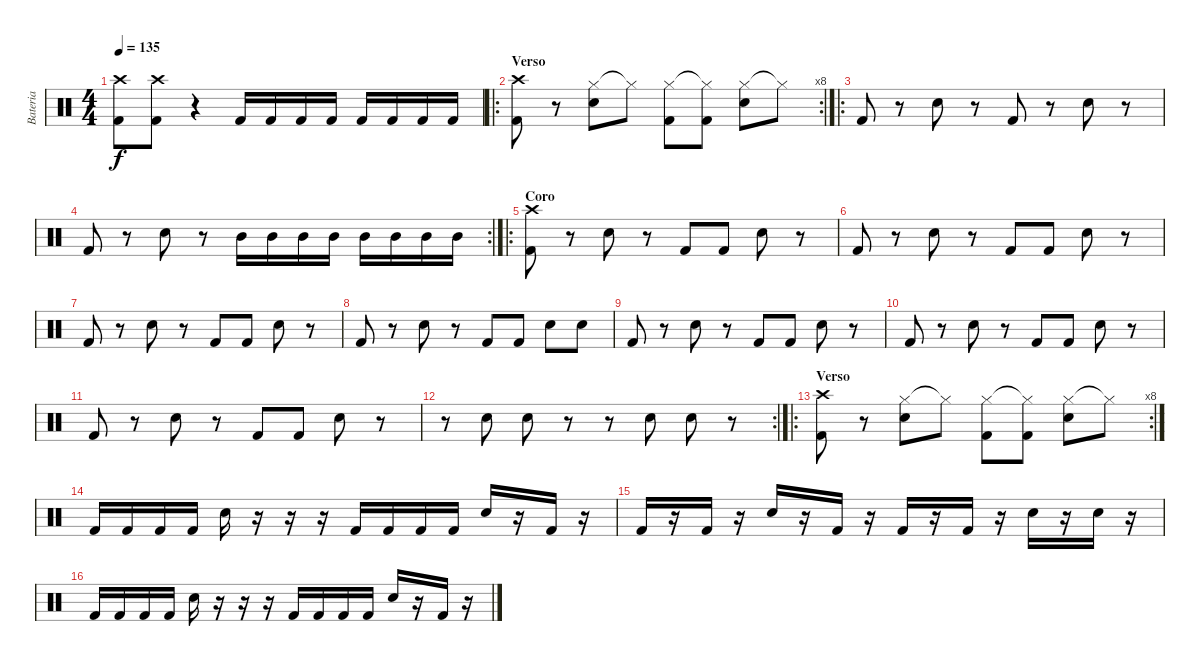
\track ("Bateria" "Bateria") {instrument percussion}
\staff {score}
\articulation defaults
\ts (4 4)
\tempo 135
\clef neutral
\ks c
("Crash high (hit)" "Kick (hit) 2").8{dy f} ("Crash high (hit)" "Kick (hit) 2").8 r.4 "Kick (hit) 2".16 "Kick (hit) 2".16 "Kick (hit) 2".16 "Kick (hit) 2".16 "Kick (hit) 2".16 "Kick (hit) 2".16 "Kick (hit) 2".16 "Kick (hit) 2".16 |
\ro
\rc 8
\section ("" "Verso")
("Crash high (hit)" "Kick (hit) 2").8 r.8 ("Hi-Hat (closed)" "Snare (hit) 2").8 "Hi-Hat (closed)"{t}.8 ("Hi-Hat (closed)" "Kick (hit) 2").8 ("Hi-Hat (closed)"{t} "Kick (hit) 2").8 ("Hi-Hat (closed)" "Snare (hit) 2").8 "Hi-Hat (closed)"{t}.8 |
\ro "Kick (hit) 2".8
r.8 "Snare (hit) 2".8 r.8 "Kick (hit) 2".8 r.8 "Snare (hit) 2".8 r.8 |
\rc 2 "Kick (hit) 2".8
r.8 "Snare (hit) 2".8 r.8 "Mid Tom (hit)".16 "Mid Tom (hit)".16 "Mid Tom (hit)".16 "Mid Tom (hit)".16 "Mid Tom (hit)".16 "Mid Tom (hit)".16 "Mid Tom (hit)".16 "Mid Tom (hit)".16 |
\ro
\section ("" "Coro")
("Crash high (hit)" "Kick (hit) 2").8 r.8 "Snare (hit) 2".8 r.8 "Kick (hit) 2".8 "Kick (hit) 2".8 "Snare (hit) 2".8 r.8 |
"Kick (hit) 2".8 r.8 "Snare (hit) 2".8 r.8 "Kick (hit) 2".8 "Kick (hit) 2".8 "Snare (hit) 2".8 r.8 |
"Kick (hit) 2".8 r.8 "Snare (hit) 2".8 r.8 "Kick (hit) 2".8 "Kick (hit) 2".8 "Snare (hit) 2".8 r.8 |
"Kick (hit) 2".8 r.8 "Snare (hit) 2".8 r.8 "Kick (hit) 2".8 "Kick (hit) 2".8 "Snare (hit) 2".8 "Snare (hit) 2".8 |
"Kick (hit) 2".8 r.8 "Snare (hit) 2".8 r.8 "Kick (hit) 2".8 "Kick (hit) 2".8 "Snare (hit) 2".8 r.8 |
"Kick (hit) 2".8 r.8 "Snare (hit) 2".8 r.8 "Kick (hit) 2".8 "Kick (hit) 2".8 "Snare (hit) 2".8 r.8 |
"Kick (hit) 2".8 r.8 "Snare (hit) 2".8 r.8 "Kick (hit) 2".8 "Kick (hit) 2".8 "Snare (hit) 2".8 r.8 |
\rc 2
r.8 "Snare (hit) 2".8 "Snare (hit) 2".8 r.8 r.8 "Snare (hit) 2".8 "Snare (hit) 2".8 r.8 |
\ro
\rc 8
\section ("" "Verso")
("Crash high (hit)" "Kick (hit) 2").8 r.8 ("Hi-Hat (closed)" "Snare (hit) 2").8 "Hi-Hat (closed)"{t}.8 ("Hi-Hat (closed)" "Kick (hit) 2").8 ("Hi-Hat (closed)"{t} "Kick (hit) 2").8 ("Hi-Hat (closed)" "Snare (hit) 2").8 "Hi-Hat (closed)"{t}.8 |
"Kick (hit) 2".16 "Kick (hit) 2".16 "Kick (hit) 2".16 "Kick (hit) 2".16 "Snare (hit) 2".16 r.16 r.16 r.16 "Kick (hit) 2".16 "Kick (hit) 2".16 "Kick (hit) 2".16 "Kick (hit) 2".16 "Snare (hit) 2".16 r.16 "Kick (hit) 2".16 r.16 |
"Kick (hit) 2".16 r.16 "Kick (hit) 2".16 r.16 "Snare (hit) 2".16 r.16 "Kick (hit) 2".16 r.16 "Kick (hit) 2".16 r.16 "Kick (hit) 2".16 r.16 "Snare (hit) 2".16 r.16 "Snare (hit) 2".16 r.16 |
"Kick (hit) 2".16 "Kick (hit) 2".16 "Kick (hit) 2".16 "Kick (hit) 2".16 "Snare (hit) 2".16 r.16 r.16 r.16 "Kick (hit) 2".16 "Kick (hit) 2".16 "Kick (hit) 2".16 "Kick (hit) 2".16 "Snare (hit) 2".16 r.16 "Kick (hit) 2".16 r.16
